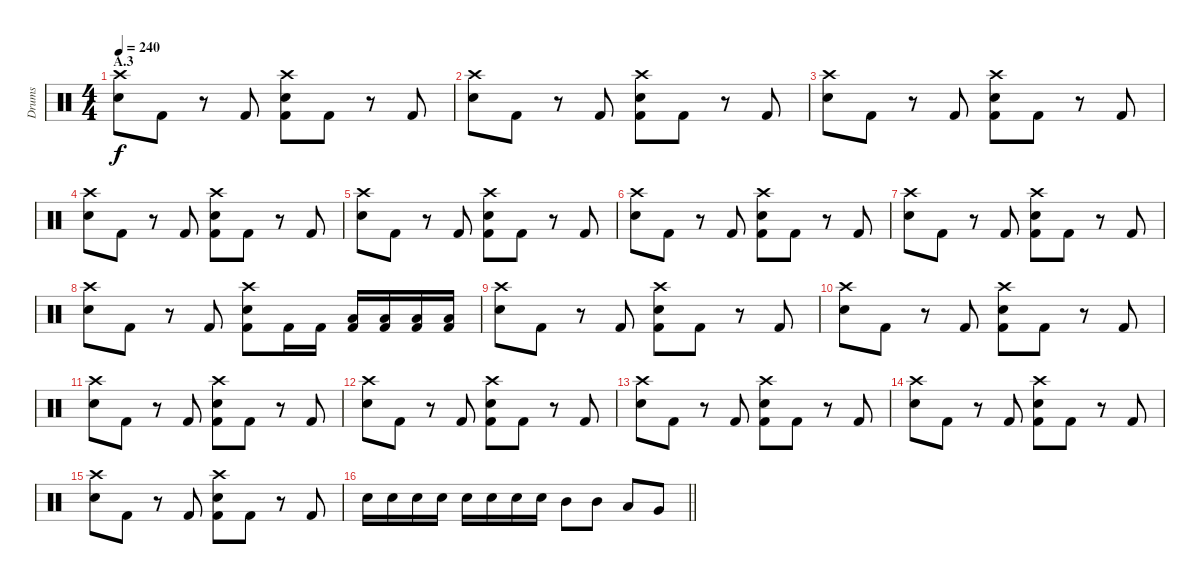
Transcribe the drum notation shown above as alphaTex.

\track ("Drums" "Drums") {instrument percussion}
\staff {score}
\articulation defaults
\ts (4 4)
\section ("" "A.3")
\tempo 240
\clef neutral
\ks c
("Crash high (hit)" "Electric Snare (hit)").8{dy f} "Kick (hit) 2".8 r.8 "Kick (hit) 2".8 ("Crash high (hit)" "Electric Snare (hit)" "Kick (hit) 2").8 "Kick (hit) 2".8 r.8 "Kick (hit) 2".8 |
("Crash high (hit)" "Electric Snare (hit)").8 "Kick (hit) 2".8 r.8 "Kick (hit) 2".8 ("Crash high (hit)" "Electric Snare (hit)" "Kick (hit) 2").8 "Kick (hit) 2".8 r.8 "Kick (hit) 2".8 |
("Crash high (hit)" "Electric Snare (hit)").8 "Kick (hit) 2".8 r.8 "Kick (hit) 2".8 ("Crash high (hit)" "Electric Snare (hit)" "Kick (hit) 2").8 "Kick (hit) 2".8 r.8 "Kick (hit) 2".8 |
("Crash high (hit)" "Electric Snare (hit)").8 "Kick (hit) 2".8 r.8 "Kick (hit) 2".8 ("Crash high (hit)" "Electric Snare (hit)" "Kick (hit) 2").8 "Kick (hit) 2".8 r.8 "Kick (hit) 2".8 |
("Crash high (hit)" "Electric Snare (hit)").8 "Kick (hit) 2".8 r.8 "Kick (hit) 2".8 ("Crash high (hit)" "Electric Snare (hit)" "Kick (hit) 2").8 "Kick (hit) 2".8 r.8 "Kick (hit) 2".8 |
("Crash high (hit)" "Electric Snare (hit)").8 "Kick (hit) 2".8 r.8 "Kick (hit) 2".8 ("Crash high (hit)" "Electric Snare (hit)" "Kick (hit) 2").8 "Kick (hit) 2".8 r.8 "Kick (hit) 2".8 |
("Crash high (hit)" "Electric Snare (hit)").8 "Kick (hit) 2".8 r.8 "Kick (hit) 2".8 ("Crash high (hit)" "Electric Snare (hit)" "Kick (hit) 2").8 "Kick (hit) 2".8 r.8 "Kick (hit) 2".8 |
("Crash high (hit)" "Electric Snare (hit)").8 "Kick (hit) 2".8 r.8 "Kick (hit) 2".8 ("Crash high (hit)" "Electric Snare (hit)" "Kick (hit) 2").8 "Kick (hit) 2".16 "Kick (hit) 2".16 ("Low Floor Tom (hit)" "Kick (hit) 2").16 ("Low Floor Tom (hit)" "Kick (hit) 2").16 ("Low Floor Tom (hit)" "Kick (hit) 2").16 ("Low Floor Tom (hit)" "Kick (hit) 2").16 |
("Crash high (hit)" "Electric Snare (hit)").8 "Kick (hit) 2".8 r.8 "Kick (hit) 2".8 ("Crash high (hit)" "Electric Snare (hit)" "Kick (hit) 2").8 "Kick (hit) 2".8 r.8 "Kick (hit) 2".8 |
("Crash high (hit)" "Electric Snare (hit)").8 "Kick (hit) 2".8 r.8 "Kick (hit) 2".8 ("Crash high (hit)" "Electric Snare (hit)" "Kick (hit) 2").8 "Kick (hit) 2".8 r.8 "Kick (hit) 2".8 |
("Crash high (hit)" "Electric Snare (hit)").8 "Kick (hit) 2".8 r.8 "Kick (hit) 2".8 ("Crash high (hit)" "Electric Snare (hit)" "Kick (hit) 2").8 "Kick (hit) 2".8 r.8 "Kick (hit) 2".8 |
("Crash high (hit)" "Electric Snare (hit)").8 "Kick (hit) 2".8 r.8 "Kick (hit) 2".8 ("Crash high (hit)" "Electric Snare (hit)" "Kick (hit) 2").8 "Kick (hit) 2".8 r.8 "Kick (hit) 2".8 |
("Crash high (hit)" "Electric Snare (hit)").8 "Kick (hit) 2".8 r.8 "Kick (hit) 2".8 ("Crash high (hit)" "Electric Snare (hit)" "Kick (hit) 2").8 "Kick (hit) 2".8 r.8 "Kick (hit) 2".8 |
("Crash high (hit)" "Electric Snare (hit)").8 "Kick (hit) 2".8 r.8 "Kick (hit) 2".8 ("Crash high (hit)" "Electric Snare (hit)" "Kick (hit) 2").8 "Kick (hit) 2".8 r.8 "Kick (hit) 2".8 |
("Crash high (hit)" "Electric Snare (hit)").8 "Kick (hit) 2".8 r.8 "Kick (hit) 2".8 ("Crash high (hit)" "Electric Snare (hit)" "Kick (hit) 2").8 "Kick (hit) 2".8 r.8 "Kick (hit) 2".8 |
\barLineRight lightlight "Electric Snare (hit)".16 "Electric Snare (hit)".16 "Electric Snare (hit)".16 "Electric Snare (hit)".16 "Electric Snare (hit)".16 "Electric Snare (hit)".16 "Electric Snare (hit)".16 "Electric Snare (hit)".16 "Mid Tom (hit)".8 "Mid Tom (hit)".8 "Low Tom (hit)".8 "Very Low Tom (hit)".8
